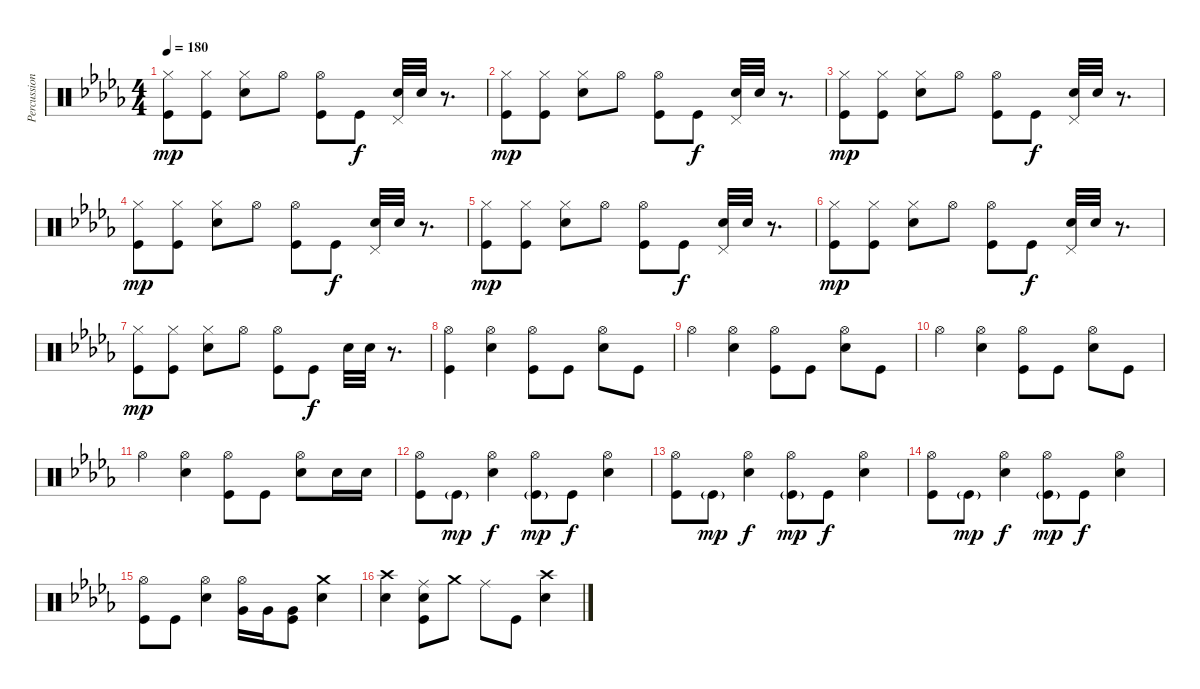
\track ("Percussion" "Percussion") {instrument percussion}
\staff {score}
\articulation defaults
\ts (4 4)
\tempo 180
\clef neutral
\ks db
("Hi-Hat (closed)" "Kick (hit)").8{dy mp} ("Hi-Hat (closed)" "Kick (hit)").8 ("Hi-Hat (closed)" "Electric Snare (hit)").8 "Hi-Hat (open)".8 ("Hi-Hat (open)" "Kick (hit)").8 "Kick (hit)".8{dy f} ("Electric Snare (hit)" "Pedal Hi-Hat (hit)").32 "Electric Snare (hit)".32 r.8{d} |
("Hi-Hat (closed)" "Kick (hit)").8{dy mp} ("Hi-Hat (closed)" "Kick (hit)").8 ("Hi-Hat (closed)" "Electric Snare (hit)").8 "Hi-Hat (open)".8 ("Hi-Hat (open)" "Kick (hit)").8 "Kick (hit)".8{dy f} ("Electric Snare (hit)" "Pedal Hi-Hat (hit)").32 "Electric Snare (hit)".32 r.8{d} |
("Hi-Hat (closed)" "Kick (hit)").8{dy mp} ("Hi-Hat (closed)" "Kick (hit)").8 ("Hi-Hat (closed)" "Electric Snare (hit)").8 "Hi-Hat (open)".8 ("Hi-Hat (open)" "Kick (hit)").8 "Kick (hit)".8{dy f} ("Electric Snare (hit)" "Pedal Hi-Hat (hit)").32 "Electric Snare (hit)".32 r.8{d} |
("Hi-Hat (closed)" "Kick (hit)").8{dy mp} ("Hi-Hat (closed)" "Kick (hit)").8 ("Hi-Hat (closed)" "Electric Snare (hit)").8 "Hi-Hat (open)".8 ("Hi-Hat (open)" "Kick (hit)").8 "Kick (hit)".8{dy f} ("Electric Snare (hit)" "Pedal Hi-Hat (hit)").32 "Electric Snare (hit)".32 r.8{d} |
("Hi-Hat (closed)" "Kick (hit)").8{dy mp} ("Hi-Hat (closed)" "Kick (hit)").8 ("Hi-Hat (closed)" "Electric Snare (hit)").8 "Hi-Hat (open)".8 ("Hi-Hat (open)" "Kick (hit)").8 "Kick (hit)".8{dy f} ("Electric Snare (hit)" "Pedal Hi-Hat (hit)").32 "Electric Snare (hit)".32 r.8{d} |
("Hi-Hat (closed)" "Kick (hit)").8{dy mp} ("Hi-Hat (closed)" "Kick (hit)").8 ("Hi-Hat (closed)" "Electric Snare (hit)").8 "Hi-Hat (open)".8 ("Hi-Hat (open)" "Kick (hit)").8 "Kick (hit)".8{dy f} ("Electric Snare (hit)" "Pedal Hi-Hat (hit)").32 "Electric Snare (hit)".32 r.8{d} |
("Hi-Hat (closed)" "Kick (hit)").8{dy mp} ("Hi-Hat (closed)" "Kick (hit)").8 ("Hi-Hat (closed)" "Electric Snare (hit)").8 "Hi-Hat (open)".8 ("Hi-Hat (open)" "Kick (hit)").8 "Kick (hit)".8{dy f} "Electric Snare (hit)".32 "Electric Snare (hit)".32 r.8{d} |
("Hi-Hat (open)" "Kick (hit)").4 ("Hi-Hat (open)" "Electric Snare (hit)").4 ("Hi-Hat (open)" "Kick (hit)").8 "Kick (hit)".8 ("Hi-Hat (open)" "Electric Snare (hit)").8 "Kick (hit)".8 |
"Hi-Hat (open)".4 ("Hi-Hat (open)" "Electric Snare (hit)").4 ("Hi-Hat (open)" "Kick (hit)").8 "Kick (hit)".8 ("Hi-Hat (open)" "Electric Snare (hit)").8 "Kick (hit)".8 |
"Hi-Hat (open)".4 ("Hi-Hat (open)" "Electric Snare (hit)").4 ("Hi-Hat (open)" "Kick (hit)").8 "Kick (hit)".8 ("Hi-Hat (open)" "Electric Snare (hit)").8 "Kick (hit)".8 |
"Hi-Hat (open)".4 ("Hi-Hat (open)" "Electric Snare (hit)").4 ("Hi-Hat (open)" "Kick (hit)").8 "Kick (hit)".8 ("Hi-Hat (open)" "Electric Snare (hit)").8 "Electric Snare (hit)".16 "Electric Snare (hit)".16 |
("Hi-Hat (open)" "Kick (hit)").8 "Kick (hit)"{g}.8{dy mp} ("Hi-Hat (open)" "Electric Snare (hit)").4{dy f} ("Hi-Hat (open)" "Kick (hit)"{g}).8{dy mp} "Kick (hit)".8{dy f} ("Hi-Hat (open)" "Electric Snare (hit)").4 |
("Hi-Hat (open)" "Kick (hit)").8 "Kick (hit)"{g}.8{dy mp} ("Hi-Hat (open)" "Electric Snare (hit)").4{dy f} ("Hi-Hat (open)" "Kick (hit)"{g}).8{dy mp} "Kick (hit)".8{dy f} ("Hi-Hat (open)" "Electric Snare (hit)").4 |
("Hi-Hat (open)" "Kick (hit)").8 "Kick (hit)"{g}.8{dy mp} ("Hi-Hat (open)" "Electric Snare (hit)").4{dy f} ("Hi-Hat (open)" "Kick (hit)"{g}).8{dy mp} "Kick (hit)".8{dy f} ("Hi-Hat (open)" "Electric Snare (hit)").4 |
("Hi-Hat (open)" "Kick (hit)").8 "Kick (hit)".8 ("Hi-Hat (open)" "Electric Snare (hit)").4 ("Hi-Hat (open)" "Very Low Tom (hit)").16 "Very Low Tom (hit)".16 ("Very Low Tom (hit)" "Kick (hit)").8 ("Crash medium (hit)" "Electric Snare (hit)").4 |
("Crash high (hit)" "Electric Snare (hit)").4 ("Ride (middle)" "Electric Snare (hit)" "Kick (hit)").8 "Crash medium (hit)".8 "Ride (middle)".8 "Kick (hit)".8 ("Crash high (hit)" "Electric Snare (hit)").4
